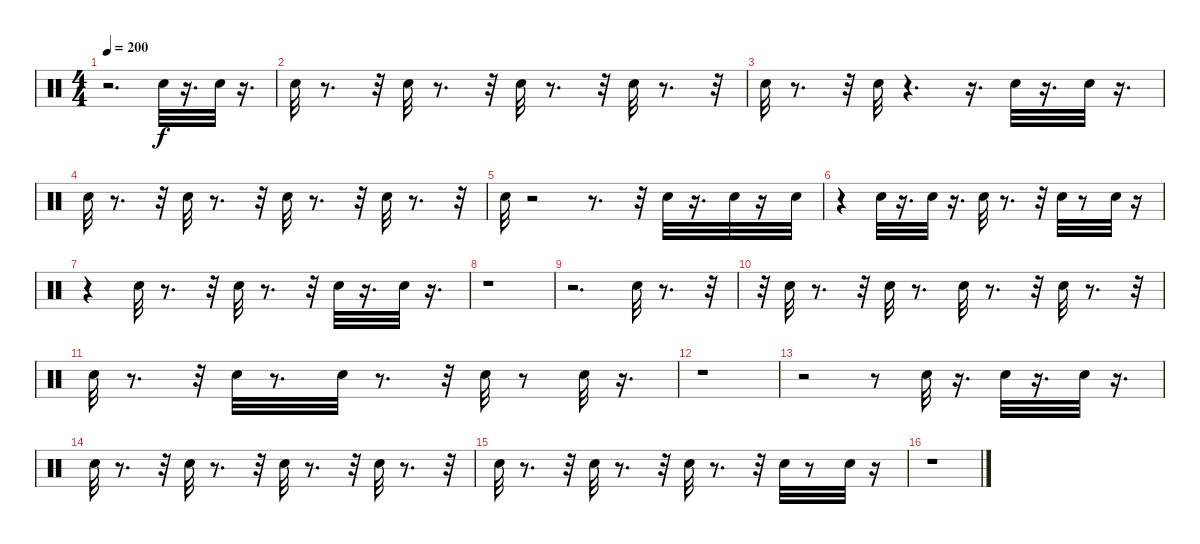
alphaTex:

\track "" {instrument percussion}
\staff {score}
\articulation defaults
\ts (4 4)
\tempo 200
\clef neutral
\ks c
r.2{d dy f} "Snare (hit)".32 r.16{d} "Snare (hit)".32 r.16{d} |
"Snare (hit)".32 r.8{d} r.32 "Snare (hit)".32 r.8{d} r.32 "Snare (hit)".32 r.8{d} r.32 "Snare (hit)".32 r.8{d} r.32 |
"Snare (hit)".32 r.8{d} r.32 "Snare (hit)".32 r.4{d} r.16{d} "Snare (hit)".32 r.16{d} "Snare (hit)".32 r.16{d} |
"Snare (hit)".32 r.8{d} r.32 "Snare (hit)".32 r.8{d} r.32 "Snare (hit)".32 r.8{d} r.32 "Snare (hit)".32 r.8{d} r.32 |
"Snare (hit)".32 r.2 r.8{d} r.32 "Snare (hit)".32 r.16{d} "Snare (hit)".32 r.16 "Snare (hit)".32 |
r.4 "Snare (hit)".32 r.16{d} "Snare (hit)".32 r.16{d} "Snare (hit)".32 r.8{d} r.32 "Snare (hit)".32 r.8 "Snare (hit)".32 r.16 |
r.4 "Snare (hit)".32 r.8{d} r.32 "Snare (hit)".32 r.8{d} r.32 "Snare (hit)".32 r.16{d} "Snare (hit)".32 r.16{d} |
r.1 |
r.2{d} "Snare (hit)".32 r.8{d} r.32 |
r.32 "Snare (hit)".32 r.8{d} r.32 "Snare (hit)".32 r.8{d} "Snare (hit)".32 r.8{d} r.32 "Snare (hit)".32 r.8{d} r.32 |
"Snare (hit)".32 r.8{d} r.32 "Snare (hit)".32 r.8{d} "Snare (hit)".32 r.8{d} r.32 "Snare (hit)".32 r.8 "Snare (hit)".32 r.16{d} |
r.1 |
r.2 r.8 "Snare (hit)".32 r.16{d} "Snare (hit)".32 r.16{d} "Snare (hit)".32 r.16{d} |
"Snare (hit)".32 r.8{d} r.32 "Snare (hit)".32 r.8{d} r.32 "Snare (hit)".32 r.8{d} r.32 "Snare (hit)".32 r.8{d} r.32 |
"Snare (hit)".32 r.8{d} r.32 "Snare (hit)".32 r.8{d} r.32 "Snare (hit)".32 r.8{d} r.32 "Snare (hit)".32 r.8 "Snare (hit)".32 r.16 |
r.1
